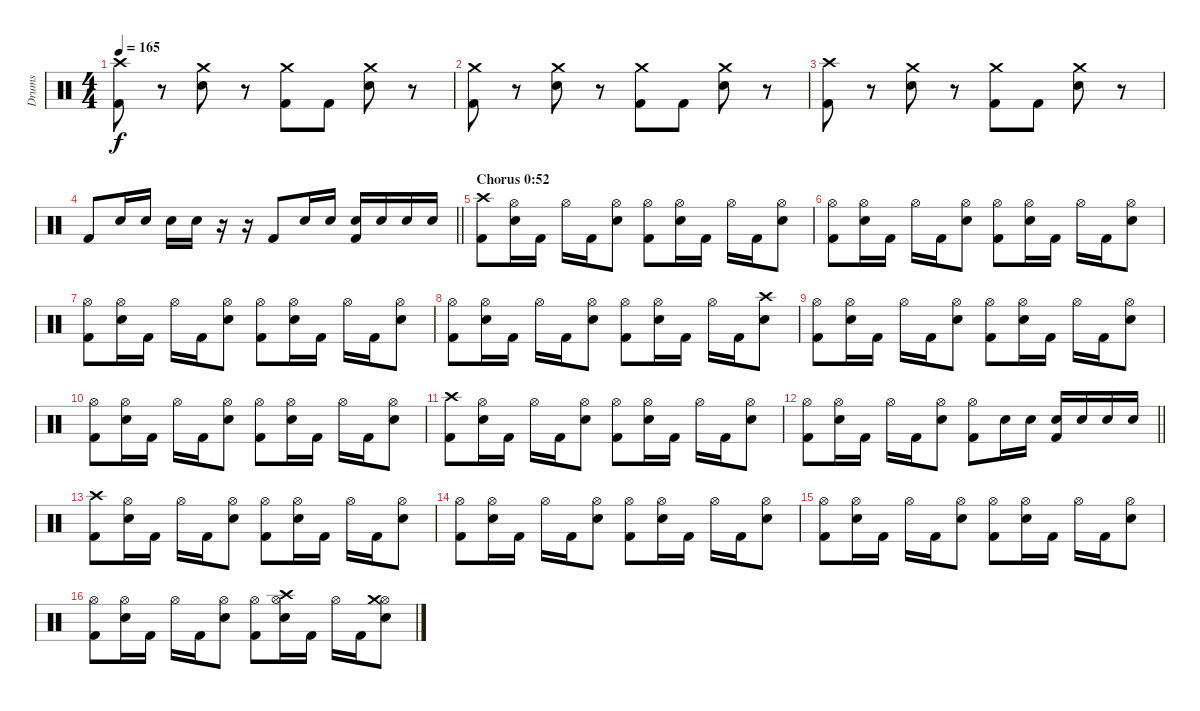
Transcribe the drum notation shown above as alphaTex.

\track ("Drums" "Drums") {instrument percussion}
\staff {score}
\articulation defaults
\ts (4 4)
\tempo 165
\clef neutral
\ks c
("Crash high (hit)" "Kick (hit) 2").8{dy f} r.8 ("Crash medium (hit)" "Electric Snare (hit)").8 r.8 ("Crash medium (hit)" "Kick (hit) 2").8 "Kick (hit) 2".8 ("Crash medium (hit)" "Electric Snare (hit)").8 r.8 |
("Crash medium (hit)" "Kick (hit) 2").8 r.8 ("Crash medium (hit)" "Electric Snare (hit)").8 r.8 ("Crash medium (hit)" "Kick (hit) 2").8 "Kick (hit) 2".8 ("Crash medium (hit)" "Electric Snare (hit)").8 r.8 |
("Crash high (hit)" "Kick (hit) 2").8 r.8 ("Crash medium (hit)" "Electric Snare (hit)").8 r.8 ("Crash medium (hit)" "Kick (hit) 2").8 "Kick (hit) 2".8 ("Crash medium (hit)" "Electric Snare (hit)").8 r.8 |
\barLineRight lightlight "Kick (hit) 2".8 "Electric Snare (hit)".16 "Electric Snare (hit)".16 "Electric Snare (hit)".16 "Electric Snare (hit)".16
r.16 r.16 "Kick (hit) 2".8 "Electric Snare (hit)".16 "Electric Snare (hit)".16 ("Kick (hit) 2" "Electric Snare (hit)").16 "Electric Snare (hit)".16 "Electric Snare (hit)".16 "Electric Snare (hit)".16 |
\section ("" "Chorus 0:52")
("Crash high (hit)" "Kick (hit) 2").8 ("Hi-Hat (open)" "Electric Snare (hit)").16 "Kick (hit) 2".16 "Hi-Hat (open)".16 "Kick (hit) 2".16 ("Hi-Hat (open)" "Electric Snare (hit)").8 ("Hi-Hat (open)" "Kick (hit) 2").8 ("Hi-Hat (open)" "Electric Snare (hit)").16 "Kick (hit) 2".16 "Hi-Hat (open)".16 "Kick (hit) 2".16 ("Hi-Hat (open)" "Electric Snare (hit)").8 |
("Hi-Hat (open)" "Kick (hit) 2").8 ("Hi-Hat (open)" "Electric Snare (hit)").16 "Kick (hit) 2".16 "Hi-Hat (open)".16 "Kick (hit) 2".16 ("Hi-Hat (open)" "Electric Snare (hit)").8 ("Hi-Hat (open)" "Kick (hit) 2").8 ("Hi-Hat (open)" "Electric Snare (hit)").16 "Kick (hit) 2".16 "Hi-Hat (open)".16 "Kick (hit) 2".16 ("Hi-Hat (open)" "Electric Snare (hit)").8 |
("Hi-Hat (open)" "Kick (hit) 2").8 ("Hi-Hat (open)" "Electric Snare (hit)").16 "Kick (hit) 2".16 "Hi-Hat (open)".16 "Kick (hit) 2".16 ("Hi-Hat (open)" "Electric Snare (hit)").8 ("Hi-Hat (open)" "Kick (hit) 2").8 ("Hi-Hat (open)" "Electric Snare (hit)").16 "Kick (hit) 2".16 "Hi-Hat (open)".16 "Kick (hit) 2".16 ("Hi-Hat (open)" "Electric Snare (hit)").8 |
("Hi-Hat (open)" "Kick (hit) 2").8 ("Hi-Hat (open)" "Electric Snare (hit)").16 "Kick (hit) 2".16 "Hi-Hat (open)".16 "Kick (hit) 2".16 ("Hi-Hat (open)" "Electric Snare (hit)").8 ("Hi-Hat (open)" "Kick (hit) 2").8 ("Hi-Hat (open)" "Electric Snare (hit)").16 "Kick (hit) 2".16 "Hi-Hat (open)".16 "Kick (hit) 2".16 ("Crash high (hit)" "Electric Snare (hit)").8 |
("Hi-Hat (open)" "Kick (hit) 2").8 ("Hi-Hat (open)" "Electric Snare (hit)").16 "Kick (hit) 2".16 "Hi-Hat (open)".16 "Kick (hit) 2".16 ("Hi-Hat (open)" "Electric Snare (hit)").8 ("Hi-Hat (open)" "Kick (hit) 2").8 ("Hi-Hat (open)" "Electric Snare (hit)").16 "Kick (hit) 2".16 "Hi-Hat (open)".16 "Kick (hit) 2".16 ("Hi-Hat (open)" "Electric Snare (hit)").8 |
("Hi-Hat (open)" "Kick (hit) 2").8 ("Hi-Hat (open)" "Electric Snare (hit)").16 "Kick (hit) 2".16 "Hi-Hat (open)".16 "Kick (hit) 2".16 ("Hi-Hat (open)" "Electric Snare (hit)").8 ("Hi-Hat (open)" "Kick (hit) 2").8 ("Hi-Hat (open)" "Electric Snare (hit)").16 "Kick (hit) 2".16 "Hi-Hat (open)".16 "Kick (hit) 2".16 ("Hi-Hat (open)" "Electric Snare (hit)").8 |
("Crash high (hit)" "Kick (hit) 2").8 ("Hi-Hat (open)" "Electric Snare (hit)").16 "Kick (hit) 2".16 "Hi-Hat (open)".16 "Kick (hit) 2".16 ("Hi-Hat (open)" "Electric Snare (hit)").8 ("Hi-Hat (open)" "Kick (hit) 2").8 ("Hi-Hat (open)" "Electric Snare (hit)").16 "Kick (hit) 2".16 "Hi-Hat (open)".16 "Kick (hit) 2".16 ("Hi-Hat (open)" "Electric Snare (hit)").8 |
\barLineRight lightlight
("Hi-Hat (open)" "Kick (hit) 2").8 ("Hi-Hat (open)" "Electric Snare (hit)").16 "Kick (hit) 2".16 "Hi-Hat (open)".16 "Kick (hit) 2".16 ("Hi-Hat (open)" "Electric Snare (hit)").8 ("Hi-Hat (open)" "Kick (hit) 2").8 "Electric Snare (hit)".16 "Electric Snare (hit)".16 ("Kick (hit) 2" "Electric Snare (hit)").16 "Electric Snare (hit)".16 "Electric Snare (hit)".16 "Electric Snare (hit)".16 |
("Crash high (hit)" "Kick (hit) 2").8 ("Hi-Hat (open)" "Electric Snare (hit)").16 "Kick (hit) 2".16 "Hi-Hat (open)".16 "Kick (hit) 2".16 ("Hi-Hat (open)" "Electric Snare (hit)").8 ("Hi-Hat (open)" "Kick (hit) 2").8 ("Hi-Hat (open)" "Electric Snare (hit)").16 "Kick (hit) 2".16 "Hi-Hat (open)".16 "Kick (hit) 2".16 ("Hi-Hat (open)" "Electric Snare (hit)").8 |
("Hi-Hat (open)" "Kick (hit) 2").8 ("Hi-Hat (open)" "Electric Snare (hit)").16 "Kick (hit) 2".16 "Hi-Hat (open)".16 "Kick (hit) 2".16 ("Hi-Hat (open)" "Electric Snare (hit)").8 ("Hi-Hat (open)" "Kick (hit) 2").8 ("Hi-Hat (open)" "Electric Snare (hit)").16 "Kick (hit) 2".16 "Hi-Hat (open)".16 "Kick (hit) 2".16 ("Hi-Hat (open)" "Electric Snare (hit)").8 |
("Hi-Hat (open)" "Kick (hit) 2").8 ("Hi-Hat (open)" "Electric Snare (hit)").16 "Kick (hit) 2".16 "Hi-Hat (open)".16 "Kick (hit) 2".16 ("Hi-Hat (open)" "Electric Snare (hit)").8 ("Hi-Hat (open)" "Kick (hit) 2").8 ("Hi-Hat (open)" "Electric Snare (hit)").16 "Kick (hit) 2".16 "Hi-Hat (open)".16 "Kick (hit) 2".16 ("Hi-Hat (open)" "Electric Snare (hit)").8 |
("Hi-Hat (open)" "Kick (hit) 2").8 ("Hi-Hat (open)" "Electric Snare (hit)").16 "Kick (hit) 2".16 "Hi-Hat (open)".16 "Kick (hit) 2".16 ("Hi-Hat (open)" "Electric Snare (hit)").8 ("Hi-Hat (open)" "Kick (hit) 2").8 ("Hi-Hat (open)" "Crash high (hit)" "Electric Snare (hit)").16 "Kick (hit) 2".16 "Hi-Hat (open)".16 "Kick (hit) 2".16 ("Hi-Hat (open)" "Crash medium (hit)" "Electric Snare (hit)").8
